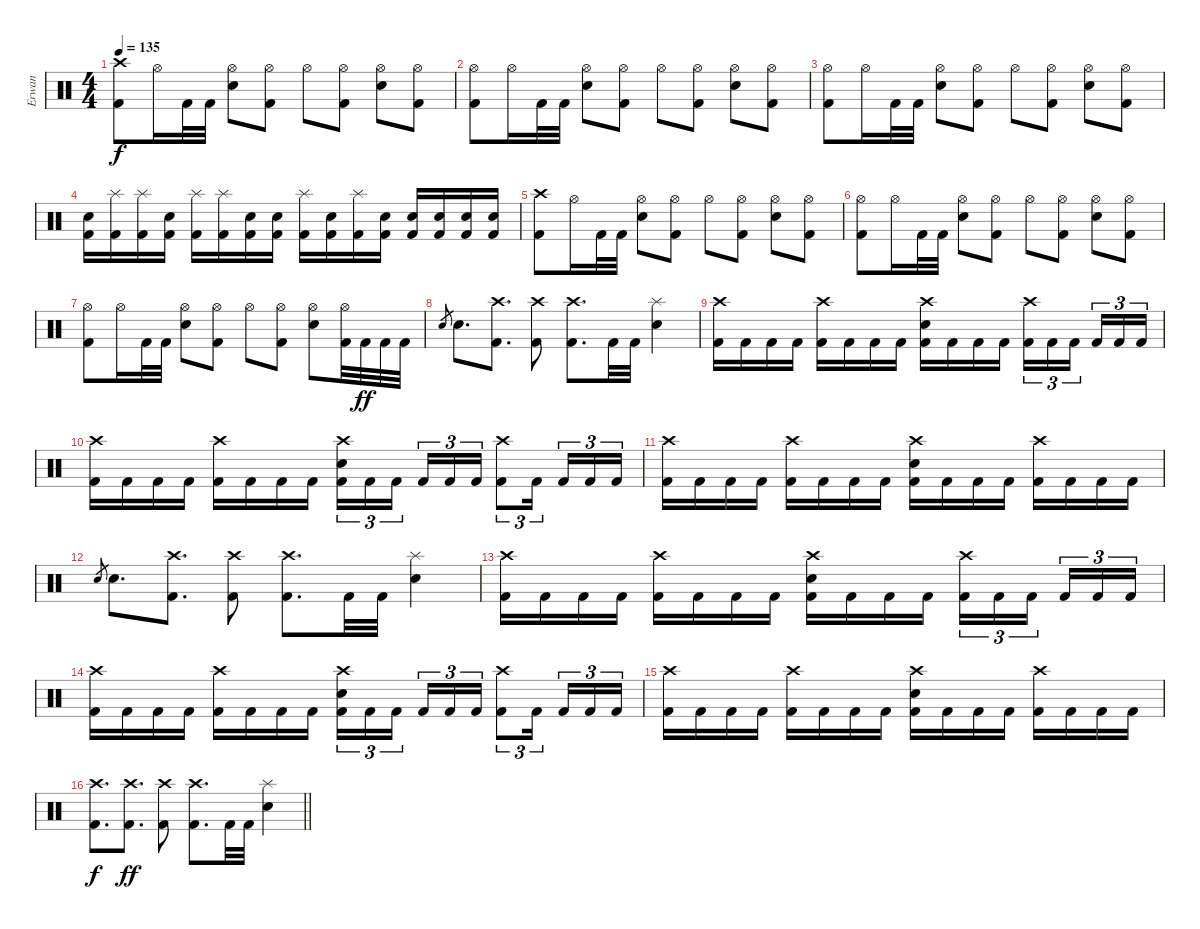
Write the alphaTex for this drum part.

\track ("Erwan" "Erwan") {instrument percussion}
\staff {score}
\articulation defaults
\ts (4 4)
\tempo 135
\clef neutral
\ks c
("Crash high (hit)" "Kick (hit) 2").8{dy f} "Hi-Hat (open)".16 "Kick (hit) 2".32 "Kick (hit) 2".32 ("Hi-Hat (open)" "Electric Snare (hit)").8 ("Hi-Hat (open)" "Kick (hit) 2").8 "Hi-Hat (open)".8 ("Hi-Hat (open)" "Kick (hit) 2").8 ("Hi-Hat (open)" "Electric Snare (hit)").8 ("Hi-Hat (open)" "Kick (hit) 2").8 |
("Hi-Hat (open)" "Kick (hit) 2").8 "Hi-Hat (open)".16 "Kick (hit) 2".32 "Kick (hit) 2".32 ("Hi-Hat (open)" "Electric Snare (hit)").8 ("Hi-Hat (open)" "Kick (hit) 2").8 "Hi-Hat (open)".8 ("Hi-Hat (open)" "Kick (hit) 2").8 ("Hi-Hat (open)" "Electric Snare (hit)").8 ("Hi-Hat (open)" "Kick (hit) 2").8 |
("Hi-Hat (open)" "Kick (hit) 2").8 "Hi-Hat (open)".16 "Kick (hit) 2".32 "Kick (hit) 2".32 ("Hi-Hat (open)" "Electric Snare (hit)").8 ("Hi-Hat (open)" "Kick (hit) 2").8 "Hi-Hat (open)".8 ("Hi-Hat (open)" "Kick (hit) 2").8 ("Hi-Hat (open)" "Electric Snare (hit)").8 ("Hi-Hat (open)" "Kick (hit) 2").8 |
("Electric Snare (hit)" "Kick (hit) 2").16 ("Splash (hit)" "Kick (hit) 2").16 ("Splash (hit)" "Kick (hit) 2").16 ("Electric Snare (hit)" "Kick (hit) 2").16 ("Splash (hit)" "Kick (hit) 2").16 ("Splash (hit)" "Kick (hit) 2").16 ("Electric Snare (hit)" "Kick (hit) 2").16 ("Electric Snare (hit)" "Kick (hit) 2").16 ("Splash (hit)" "Kick (hit) 2").16 ("Electric Snare (hit)" "Kick (hit) 2").16 ("Splash (hit)" "Kick (hit) 2").16 ("Electric Snare (hit)" "Kick (hit) 2").16 ("Electric Snare (hit)" "Kick (hit) 2").16 ("Electric Snare (hit)" "Kick (hit) 2").16 ("Electric Snare (hit)" "Kick (hit) 2").16 ("Electric Snare (hit)" "Kick (hit) 2").16 |
("Crash high (hit)" "Kick (hit) 2").8 "Hi-Hat (open)".16 "Kick (hit) 2".32 "Kick (hit) 2".32 ("Hi-Hat (open)" "Electric Snare (hit)").8 ("Hi-Hat (open)" "Kick (hit) 2").8 "Hi-Hat (open)".8 ("Hi-Hat (open)" "Kick (hit) 2").8 ("Hi-Hat (open)" "Electric Snare (hit)").8 ("Hi-Hat (open)" "Kick (hit) 2").8 |
("Hi-Hat (open)" "Kick (hit) 2").8 "Hi-Hat (open)".16 "Kick (hit) 2".32 "Kick (hit) 2".32 ("Hi-Hat (open)" "Electric Snare (hit)").8 ("Hi-Hat (open)" "Kick (hit) 2").8 "Hi-Hat (open)".8 ("Hi-Hat (open)" "Kick (hit) 2").8 ("Hi-Hat (open)" "Electric Snare (hit)").8 ("Hi-Hat (open)" "Kick (hit) 2").8 |
("Hi-Hat (open)" "Kick (hit) 2").8 "Hi-Hat (open)".16 "Kick (hit) 2".32 "Kick (hit) 2".32 ("Hi-Hat (open)" "Electric Snare (hit)").8 ("Hi-Hat (open)" "Kick (hit) 2").8 "Hi-Hat (open)".8 ("Hi-Hat (open)" "Kick (hit) 2").8 ("Hi-Hat (open)" "Electric Snare (hit)").8 ("Hi-Hat (open)" "Kick (hit) 2").32 "Kick (hit) 2".32{dy ff} "Kick (hit) 2".32 "Kick (hit) 2".32 |
"Electric Snare (hit)".8{gr} "Electric Snare (hit)".8{d} ("Crash high (hit)" "Kick (hit) 2").8{d} ("Crash high (hit)" "Kick (hit) 2").8 ("Crash high (hit)" "Kick (hit) 2").8{d} "Kick (hit) 2".32 "Kick (hit) 2".32 ("Splash (hit)" "Electric Snare (hit)").4 |
("Crash high (hit)" "Kick (hit) 2").16 "Kick (hit) 2".16 "Kick (hit) 2".16 "Kick (hit) 2".16 ("Crash high (hit)" "Kick (hit) 2").16 "Kick (hit) 2".16 "Kick (hit) 2".16 "Kick (hit) 2".16 ("Crash high (hit)" "Electric Snare (hit)" "Kick (hit) 2").16 "Kick (hit) 2".16 "Kick (hit) 2".16 "Kick (hit) 2".16 ("Crash high (hit)" "Kick (hit) 2").16{tu (3 2)} "Kick (hit) 2".16{tu (3 2)} "Kick (hit) 2".16{tu (3 2) beam splitsecondary} "Kick (hit) 2".16{tu (3 2)} "Kick (hit) 2".16{tu (3 2)} "Kick (hit) 2".16{tu (3 2)} |
("Crash high (hit)" "Kick (hit) 2").16 "Kick (hit) 2".16 "Kick (hit) 2".16 "Kick (hit) 2".16 ("Crash high (hit)" "Kick (hit) 2").16 "Kick (hit) 2".16 "Kick (hit) 2".16 "Kick (hit) 2".16 ("Crash high (hit)" "Electric Snare (hit)" "Kick (hit) 2").16{tu (3 2)} "Kick (hit) 2".16{tu (3 2)} "Kick (hit) 2".16{tu (3 2) beam splitsecondary} "Kick (hit) 2".16{tu (3 2)} "Kick (hit) 2".16{tu (3 2)} "Kick (hit) 2".16{tu (3 2)} ("Crash high (hit)" "Kick (hit) 2").8{tu (3 2)} "Kick (hit) 2".16{tu (3 2) beam splitsecondary} "Kick (hit) 2".16{tu (3 2)} "Kick (hit) 2".16{tu (3 2)} "Kick (hit) 2".16{tu (3 2)} |
("Crash high (hit)" "Kick (hit) 2").16 "Kick (hit) 2".16 "Kick (hit) 2".16 "Kick (hit) 2".16 ("Crash high (hit)" "Kick (hit) 2").16 "Kick (hit) 2".16 "Kick (hit) 2".16 "Kick (hit) 2".16 ("Crash high (hit)" "Electric Snare (hit)" "Kick (hit) 2").16 "Kick (hit) 2".16 "Kick (hit) 2".16 "Kick (hit) 2".16 ("Crash high (hit)" "Kick (hit) 2").16 "Kick (hit) 2".16 "Kick (hit) 2".16 "Kick (hit) 2".16 |
"Electric Snare (hit)".8{gr} "Electric Snare (hit)".8{d} ("Crash high (hit)" "Kick (hit) 2").8{d} ("Crash high (hit)" "Kick (hit) 2").8 ("Crash high (hit)" "Kick (hit) 2").8{d} "Kick (hit) 2".32 "Kick (hit) 2".32 ("Splash (hit)" "Electric Snare (hit)").4 |
("Crash high (hit)" "Kick (hit) 2").16 "Kick (hit) 2".16 "Kick (hit) 2".16 "Kick (hit) 2".16 ("Crash high (hit)" "Kick (hit) 2").16 "Kick (hit) 2".16 "Kick (hit) 2".16 "Kick (hit) 2".16 ("Crash high (hit)" "Electric Snare (hit)" "Kick (hit) 2").16 "Kick (hit) 2".16 "Kick (hit) 2".16 "Kick (hit) 2".16 ("Crash high (hit)" "Kick (hit) 2").16{tu (3 2)} "Kick (hit) 2".16{tu (3 2)} "Kick (hit) 2".16{tu (3 2) beam splitsecondary} "Kick (hit) 2".16{tu (3 2)} "Kick (hit) 2".16{tu (3 2)} "Kick (hit) 2".16{tu (3 2)} |
("Crash high (hit)" "Kick (hit) 2").16 "Kick (hit) 2".16 "Kick (hit) 2".16 "Kick (hit) 2".16 ("Crash high (hit)" "Kick (hit) 2").16 "Kick (hit) 2".16 "Kick (hit) 2".16 "Kick (hit) 2".16 ("Crash high (hit)" "Electric Snare (hit)" "Kick (hit) 2").16{tu (3 2)} "Kick (hit) 2".16{tu (3 2)} "Kick (hit) 2".16{tu (3 2) beam splitsecondary} "Kick (hit) 2".16{tu (3 2)} "Kick (hit) 2".16{tu (3 2)} "Kick (hit) 2".16{tu (3 2)} ("Crash high (hit)" "Kick (hit) 2").8{tu (3 2)} "Kick (hit) 2".16{tu (3 2) beam splitsecondary} "Kick (hit) 2".16{tu (3 2)} "Kick (hit) 2".16{tu (3 2)} "Kick (hit) 2".16{tu (3 2)} |
("Crash high (hit)" "Kick (hit) 2").16 "Kick (hit) 2".16 "Kick (hit) 2".16 "Kick (hit) 2".16 ("Crash high (hit)" "Kick (hit) 2").16 "Kick (hit) 2".16 "Kick (hit) 2".16 "Kick (hit) 2".16 ("Crash high (hit)" "Electric Snare (hit)" "Kick (hit) 2").16 "Kick (hit) 2".16 "Kick (hit) 2".16 "Kick (hit) 2".16 ("Crash high (hit)" "Kick (hit) 2").16 "Kick (hit) 2".16 "Kick (hit) 2".16 "Kick (hit) 2".16 |
\barLineRight lightlight
("Crash high (hit)" "Kick (hit) 2").8{d dy f} ("Crash high (hit)" "Kick (hit) 2").8{d dy ff} ("Crash high (hit)" "Kick (hit) 2").8 ("Crash high (hit)" "Kick (hit) 2").8{d} "Kick (hit) 2".32 "Kick (hit) 2".32 ("Splash (hit)" "Electric Snare (hit)").4
